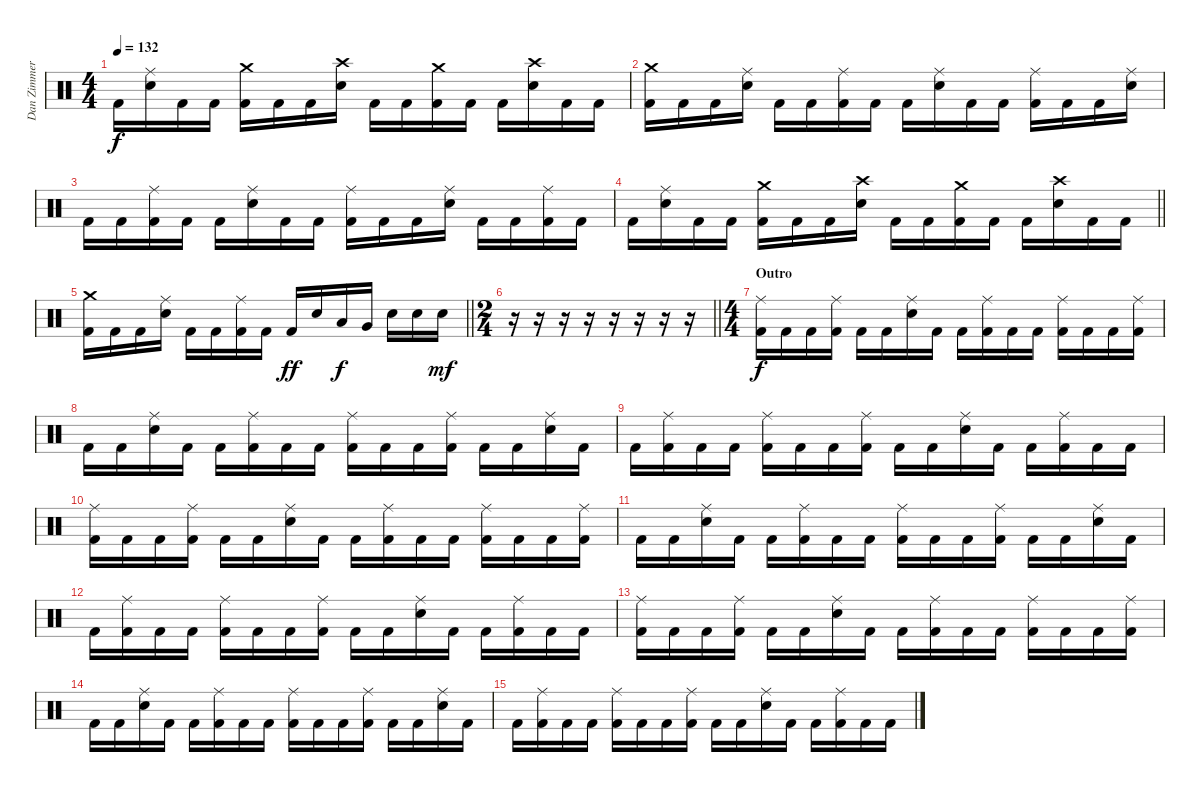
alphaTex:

\track ("Dan Zimmermann" "Dan Zimmer") {instrument percussion}
\staff {score}
\articulation defaults
\ts (4 4)
\tempo 132
\clef neutral
\ks c "Kick (hit) 2".16{dy f}
("Ride (middle)" "Electric Snare (hit)").16 "Kick (hit) 2".16 "Kick (hit) 2".16 ("Crash medium (hit)" "Kick (hit) 2").16 "Kick (hit) 2".16 "Kick (hit) 2".16 ("Crash high (hit)" "Electric Snare (hit)").16 "Kick (hit) 2".16 "Kick (hit) 2".16 ("Crash medium (hit)" "Kick (hit) 2").16 "Kick (hit) 2".16 "Kick (hit) 2".16 ("Crash high (hit)" "Electric Snare (hit)").16 "Kick (hit) 2".16 "Kick (hit) 2".16 |
("Crash medium (hit)" "Kick (hit) 2").16 "Kick (hit) 2".16 "Kick (hit) 2".16 ("Ride (middle)" "Electric Snare (hit)").16 "Kick (hit) 2".16 "Kick (hit) 2".16 ("Ride (middle)" "Kick (hit) 2").16 "Kick (hit) 2".16 "Kick (hit) 2".16 ("Ride (middle)" "Electric Snare (hit)").16 "Kick (hit) 2".16 "Kick (hit) 2".16 ("Ride (middle)" "Kick (hit) 2").16 "Kick (hit) 2".16 "Kick (hit) 2".16 ("Ride (middle)" "Electric Snare (hit)").16 |
"Kick (hit) 2".16 "Kick (hit) 2".16 ("Ride (middle)" "Kick (hit) 2").16 "Kick (hit) 2".16 "Kick (hit) 2".16 ("Ride (middle)" "Electric Snare (hit)").16 "Kick (hit) 2".16 "Kick (hit) 2".16 ("Ride (middle)" "Kick (hit) 2").16 "Kick (hit) 2".16 "Kick (hit) 2".16 ("Ride (middle)" "Electric Snare (hit)").16 "Kick (hit) 2".16 "Kick (hit) 2".16 ("Ride (middle)" "Kick (hit) 2").16 "Kick (hit) 2".16 |
\barLineRight lightlight "Kick (hit) 2".16
("Ride (middle)" "Electric Snare (hit)").16 "Kick (hit) 2".16 "Kick (hit) 2".16 ("Crash medium (hit)" "Kick (hit) 2").16 "Kick (hit) 2".16 "Kick (hit) 2".16 ("Crash high (hit)" "Electric Snare (hit)").16 "Kick (hit) 2".16 "Kick (hit) 2".16 ("Crash medium (hit)" "Kick (hit) 2").16 "Kick (hit) 2".16 "Kick (hit) 2".16 ("Crash high (hit)" "Electric Snare (hit)").16 "Kick (hit) 2".16 "Kick (hit) 2".16 |
\barLineRight lightlight
("Crash medium (hit)" "Kick (hit) 2").16 "Kick (hit) 2".16 "Kick (hit) 2".16 ("Ride (middle)" "Electric Snare (hit)").16 "Kick (hit) 2".16 "Kick (hit) 2".16 ("Ride (middle)" "Kick (hit) 2").16 "Kick (hit) 2".16 "Kick (hit) 2".16{dy ff} "Electric Snare (hit)".16 "Low Tom (hit)".16{dy f} "Very Low Tom (hit)".16 "Electric Snare (hit)".16 "Electric Snare (hit)".16 "Electric Snare (hit)".16{dy mf} |
\ts (2 4)
\barLineRight lightlight
r.16 r.16 r.16 r.16 r.16 r.16 r.16 r.16 |
\ts (4 4)
\section ("" "Outro")
("Ride (middle)" "Kick (hit) 2").16{dy f} "Kick (hit) 2".16 "Kick (hit) 2".16 ("Ride (middle)" "Kick (hit) 2").16 "Kick (hit) 2".16 "Kick (hit) 2".16 ("Ride (middle)" "Electric Snare (hit)").16 "Kick (hit) 2".16 "Kick (hit) 2".16 ("Ride (middle)" "Kick (hit) 2").16 "Kick (hit) 2".16 "Kick (hit) 2".16 ("Ride (middle)" "Kick (hit) 2").16 "Kick (hit) 2".16 "Kick (hit) 2".16 ("Ride (middle)" "Kick (hit) 2").16 |
"Kick (hit) 2".16 "Kick (hit) 2".16 ("Ride (middle)" "Electric Snare (hit)").16 "Kick (hit) 2".16 "Kick (hit) 2".16 ("Ride (middle)" "Kick (hit) 2").16 "Kick (hit) 2".16 "Kick (hit) 2".16 ("Ride (middle)" "Kick (hit) 2").16 "Kick (hit) 2".16 "Kick (hit) 2".16 ("Ride (middle)" "Kick (hit) 2").16 "Kick (hit) 2".16 "Kick (hit) 2".16 ("Ride (middle)" "Electric Snare (hit)").16 "Kick (hit) 2".16 |
"Kick (hit) 2".16 ("Ride (middle)" "Kick (hit) 2").16 "Kick (hit) 2".16 "Kick (hit) 2".16 ("Ride (middle)" "Kick (hit) 2").16 "Kick (hit) 2".16 "Kick (hit) 2".16 ("Ride (middle)" "Kick (hit) 2").16 "Kick (hit) 2".16 "Kick (hit) 2".16 ("Ride (middle)" "Electric Snare (hit)").16 "Kick (hit) 2".16 "Kick (hit) 2".16 ("Ride (middle)" "Kick (hit) 2").16 "Kick (hit) 2".16 "Kick (hit) 2".16 |
("Ride (middle)" "Kick (hit) 2").16 "Kick (hit) 2".16 "Kick (hit) 2".16 ("Ride (middle)" "Kick (hit) 2").16 "Kick (hit) 2".16 "Kick (hit) 2".16 ("Ride (middle)" "Electric Snare (hit)").16 "Kick (hit) 2".16 "Kick (hit) 2".16 ("Ride (middle)" "Kick (hit) 2").16 "Kick (hit) 2".16 "Kick (hit) 2".16 ("Ride (middle)" "Kick (hit) 2").16 "Kick (hit) 2".16 "Kick (hit) 2".16 ("Ride (middle)" "Kick (hit) 2").16 |
"Kick (hit) 2".16 "Kick (hit) 2".16 ("Ride (middle)" "Electric Snare (hit)").16 "Kick (hit) 2".16 "Kick (hit) 2".16 ("Ride (middle)" "Kick (hit) 2").16 "Kick (hit) 2".16 "Kick (hit) 2".16 ("Ride (middle)" "Kick (hit) 2").16 "Kick (hit) 2".16 "Kick (hit) 2".16 ("Ride (middle)" "Kick (hit) 2").16 "Kick (hit) 2".16 "Kick (hit) 2".16 ("Ride (middle)" "Electric Snare (hit)").16 "Kick (hit) 2".16 |
"Kick (hit) 2".16{volume 10} ("Ride (middle)" "Kick (hit) 2").16 "Kick (hit) 2".16 "Kick (hit) 2".16 ("Ride (middle)" "Kick (hit) 2").16 "Kick (hit) 2".16 "Kick (hit) 2".16 ("Ride (middle)" "Kick (hit) 2").16 "Kick (hit) 2".16 "Kick (hit) 2".16 ("Ride (middle)" "Electric Snare (hit)").16 "Kick (hit) 2".16 "Kick (hit) 2".16 ("Ride (middle)" "Kick (hit) 2").16 "Kick (hit) 2".16 "Kick (hit) 2".16 |
("Ride (middle)" "Kick (hit) 2").16{volume 8} "Kick (hit) 2".16 "Kick (hit) 2".16 ("Ride (middle)" "Kick (hit) 2").16 "Kick (hit) 2".16 "Kick (hit) 2".16 ("Ride (middle)" "Electric Snare (hit)").16 "Kick (hit) 2".16 "Kick (hit) 2".16 ("Ride (middle)" "Kick (hit) 2").16 "Kick (hit) 2".16 "Kick (hit) 2".16 ("Ride (middle)" "Kick (hit) 2").16 "Kick (hit) 2".16 "Kick (hit) 2".16 ("Ride (middle)" "Kick (hit) 2").16 |
"Kick (hit) 2".16{volume 6} "Kick (hit) 2".16 ("Ride (middle)" "Electric Snare (hit)").16 "Kick (hit) 2".16 "Kick (hit) 2".16 ("Ride (middle)" "Kick (hit) 2").16 "Kick (hit) 2".16 "Kick (hit) 2".16 ("Ride (middle)" "Kick (hit) 2").16 "Kick (hit) 2".16 "Kick (hit) 2".16 ("Ride (middle)" "Kick (hit) 2").16 "Kick (hit) 2".16 "Kick (hit) 2".16 ("Ride (middle)" "Electric Snare (hit)").16 "Kick (hit) 2".16 |
"Kick (hit) 2".16{volume 3} ("Ride (middle)" "Kick (hit) 2").16 "Kick (hit) 2".16 "Kick (hit) 2".16 ("Ride (middle)" "Kick (hit) 2").16 "Kick (hit) 2".16 "Kick (hit) 2".16 ("Ride (middle)" "Kick (hit) 2").16 "Kick (hit) 2".16 "Kick (hit) 2".16 ("Ride (middle)" "Electric Snare (hit)").16 "Kick (hit) 2".16 "Kick (hit) 2".16 ("Ride (middle)" "Kick (hit) 2").16 "Kick (hit) 2".16 "Kick (hit) 2".16
